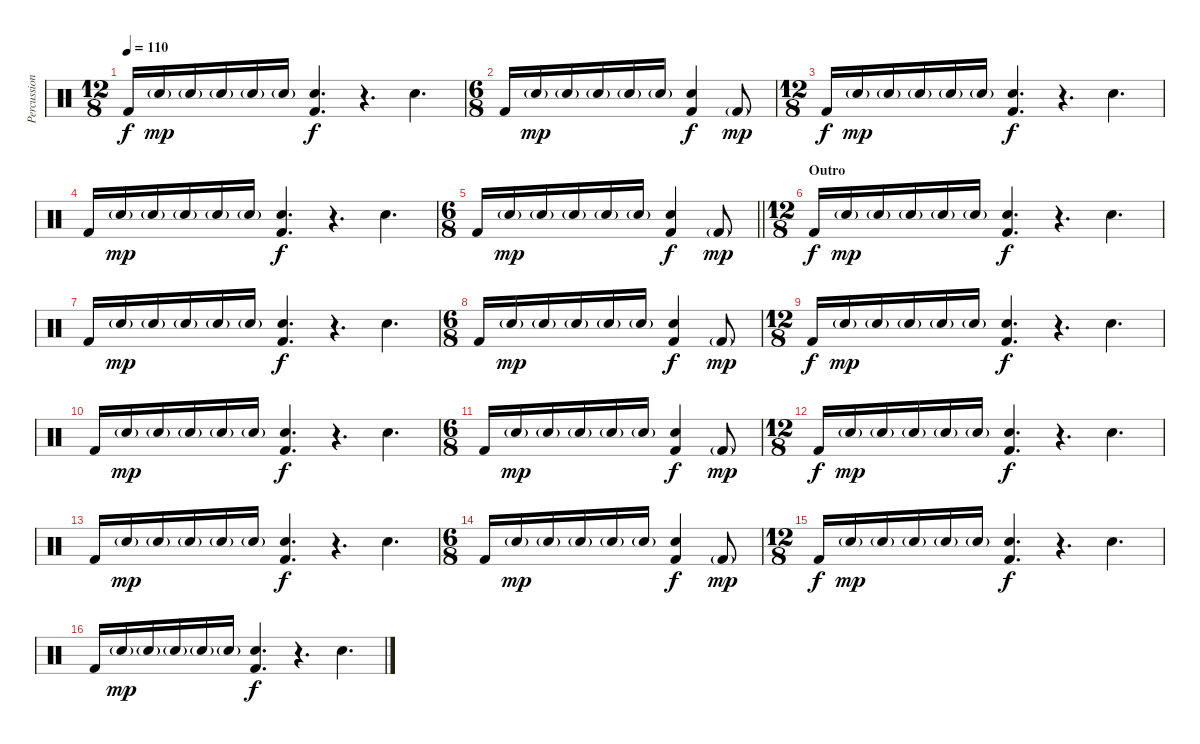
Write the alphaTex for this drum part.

\track ("Percussion" "Percussion") {instrument percussion}
\staff {score}
\articulation defaults
\ts (12 8)
\tempo 110
\clef neutral
\ks c "Kick (hit) 2".16{dy f} "Snare (hit) 2"{g}.16{dy mp} "Snare (hit) 2"{g}.16 "Snare (hit) 2"{g}.16 "Snare (hit) 2"{g}.16 "Snare (hit) 2"{g}.16
("Snare (hit) 2" "Kick (hit) 2").4{d dy f} r.4{d} "Snare (hit) 2".4{d} |
\ts (6 8)
"Kick (hit) 2".16 "Snare (hit) 2"{g}.16{dy mp} "Snare (hit) 2"{g}.16 "Snare (hit) 2"{g}.16 "Snare (hit) 2"{g}.16 "Snare (hit) 2"{g}.16 ("Snare (hit) 2" "Kick (hit) 2").4{dy f} "Kick (hit) 2"{g}.8{dy mp} |
\ts (12 8)
"Kick (hit) 2".16{dy f} "Snare (hit) 2"{g}.16{dy mp} "Snare (hit) 2"{g}.16 "Snare (hit) 2"{g}.16 "Snare (hit) 2"{g}.16 "Snare (hit) 2"{g}.16 ("Snare (hit) 2" "Kick (hit) 2").4{d dy f} r.4{d} "Snare (hit) 2".4{d} |
"Kick (hit) 2".16 "Snare (hit) 2"{g}.16{dy mp} "Snare (hit) 2"{g}.16 "Snare (hit) 2"{g}.16 "Snare (hit) 2"{g}.16 "Snare (hit) 2"{g}.16 ("Snare (hit) 2" "Kick (hit) 2").4{d dy f} r.4{d} "Snare (hit) 2".4{d} |
\ts (6 8)
\barLineRight lightlight "Kick (hit) 2".16 "Snare (hit) 2"{g}.16{dy mp} "Snare (hit) 2"{g}.16 "Snare (hit) 2"{g}.16 "Snare (hit) 2"{g}.16 "Snare (hit) 2"{g}.16
("Snare (hit) 2" "Kick (hit) 2").4{dy f} "Kick (hit) 2"{g}.8{dy mp} |
\ts (12 8)
\section ("" "Outro")
"Kick (hit) 2".16{dy f} "Snare (hit) 2"{g}.16{dy mp} "Snare (hit) 2"{g}.16 "Snare (hit) 2"{g}.16 "Snare (hit) 2"{g}.16 "Snare (hit) 2"{g}.16 ("Snare (hit) 2" "Kick (hit) 2").4{d dy f} r.4{d} "Snare (hit) 2".4{d} |
"Kick (hit) 2".16 "Snare (hit) 2"{g}.16{dy mp} "Snare (hit) 2"{g}.16 "Snare (hit) 2"{g}.16 "Snare (hit) 2"{g}.16 "Snare (hit) 2"{g}.16 ("Snare (hit) 2" "Kick (hit) 2").4{d dy f} r.4{d} "Snare (hit) 2".4{d} |
\ts (6 8)
"Kick (hit) 2".16 "Snare (hit) 2"{g}.16{dy mp} "Snare (hit) 2"{g}.16 "Snare (hit) 2"{g}.16 "Snare (hit) 2"{g}.16 "Snare (hit) 2"{g}.16 ("Snare (hit) 2" "Kick (hit) 2").4{dy f} "Kick (hit) 2"{g}.8{dy mp} |
\ts (12 8)
"Kick (hit) 2".16{dy f} "Snare (hit) 2"{g}.16{dy mp} "Snare (hit) 2"{g}.16 "Snare (hit) 2"{g}.16 "Snare (hit) 2"{g}.16 "Snare (hit) 2"{g}.16 ("Snare (hit) 2" "Kick (hit) 2").4{d dy f} r.4{d} "Snare (hit) 2".4{d} |
"Kick (hit) 2".16 "Snare (hit) 2"{g}.16{dy mp} "Snare (hit) 2"{g}.16 "Snare (hit) 2"{g}.16 "Snare (hit) 2"{g}.16 "Snare (hit) 2"{g}.16 ("Snare (hit) 2" "Kick (hit) 2").4{d dy f} r.4{d} "Snare (hit) 2".4{d} |
\ts (6 8)
"Kick (hit) 2".16 "Snare (hit) 2"{g}.16{dy mp} "Snare (hit) 2"{g}.16 "Snare (hit) 2"{g}.16 "Snare (hit) 2"{g}.16 "Snare (hit) 2"{g}.16 ("Snare (hit) 2" "Kick (hit) 2").4{dy f} "Kick (hit) 2"{g}.8{dy mp} |
\ts (12 8)
"Kick (hit) 2".16{dy f} "Snare (hit) 2"{g}.16{dy mp} "Snare (hit) 2"{g}.16 "Snare (hit) 2"{g}.16 "Snare (hit) 2"{g}.16 "Snare (hit) 2"{g}.16 ("Snare (hit) 2" "Kick (hit) 2").4{d dy f} r.4{d} "Snare (hit) 2".4{d} |
"Kick (hit) 2".16 "Snare (hit) 2"{g}.16{dy mp} "Snare (hit) 2"{g}.16 "Snare (hit) 2"{g}.16 "Snare (hit) 2"{g}.16 "Snare (hit) 2"{g}.16 ("Snare (hit) 2" "Kick (hit) 2").4{d dy f} r.4{d} "Snare (hit) 2".4{d} |
\ts (6 8)
"Kick (hit) 2".16 "Snare (hit) 2"{g}.16{dy mp} "Snare (hit) 2"{g}.16 "Snare (hit) 2"{g}.16 "Snare (hit) 2"{g}.16 "Snare (hit) 2"{g}.16 ("Snare (hit) 2" "Kick (hit) 2").4{dy f} "Kick (hit) 2"{g}.8{dy mp} |
\ts (12 8)
"Kick (hit) 2".16{dy f} "Snare (hit) 2"{g}.16{dy mp} "Snare (hit) 2"{g}.16 "Snare (hit) 2"{g}.16 "Snare (hit) 2"{g}.16 "Snare (hit) 2"{g}.16 ("Snare (hit) 2" "Kick (hit) 2").4{d dy f} r.4{d} "Snare (hit) 2".4{d} |
"Kick (hit) 2".16 "Snare (hit) 2"{g}.16{dy mp} "Snare (hit) 2"{g}.16 "Snare (hit) 2"{g}.16 "Snare (hit) 2"{g}.16 "Snare (hit) 2"{g}.16 ("Snare (hit) 2" "Kick (hit) 2").4{d dy f} r.4{d} "Snare (hit) 2".4{d}
